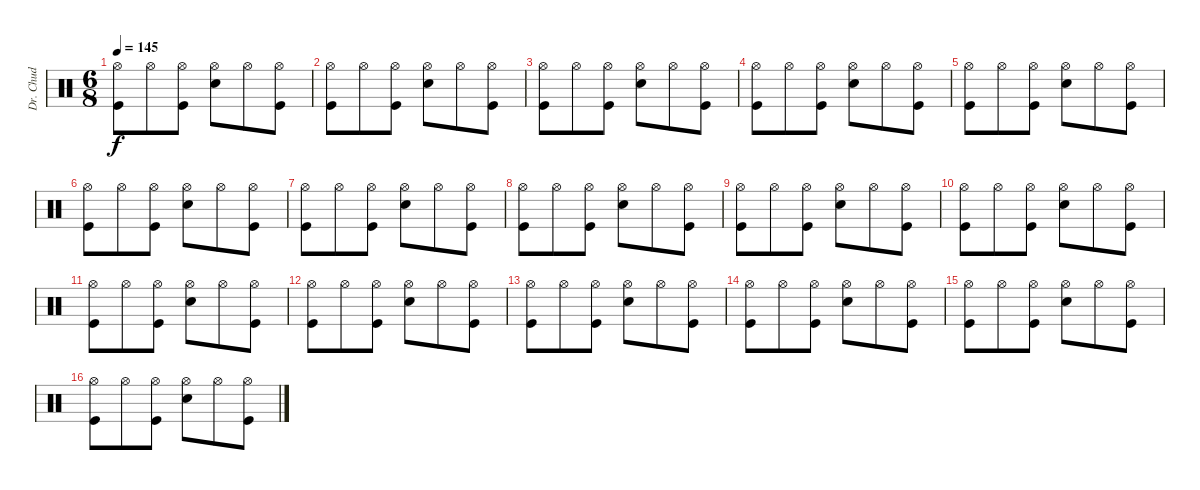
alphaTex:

\track ("Dr. Chud" "Dr. Chud") {instrument percussion}
\staff {score}
\articulation defaults
\ts (6 8)
\tempo 145
\clef neutral
\ks c
("Hi-Hat (open)" "Kick (hit)").8{dy f} "Hi-Hat (open)".8 ("Hi-Hat (open)" "Kick (hit)").8 ("Hi-Hat (open)" "Snare (hit) 2").8 "Hi-Hat (open)".8 ("Hi-Hat (open)" "Kick (hit)").8 |
("Hi-Hat (open)" "Kick (hit)").8 "Hi-Hat (open)".8 ("Hi-Hat (open)" "Kick (hit)").8 ("Hi-Hat (open)" "Snare (hit) 2").8 "Hi-Hat (open)".8 ("Hi-Hat (open)" "Kick (hit)").8 |
("Hi-Hat (open)" "Kick (hit)").8 "Hi-Hat (open)".8 ("Hi-Hat (open)" "Kick (hit)").8 ("Hi-Hat (open)" "Snare (hit) 2").8 "Hi-Hat (open)".8 ("Hi-Hat (open)" "Kick (hit)").8 |
("Hi-Hat (open)" "Kick (hit)").8 "Hi-Hat (open)".8 ("Hi-Hat (open)" "Kick (hit)").8 ("Hi-Hat (open)" "Snare (hit) 2").8 "Hi-Hat (open)".8 ("Hi-Hat (open)" "Kick (hit)").8 |
("Hi-Hat (open)" "Kick (hit)").8 "Hi-Hat (open)".8 ("Hi-Hat (open)" "Kick (hit)").8 ("Hi-Hat (open)" "Snare (hit) 2").8 "Hi-Hat (open)".8 ("Hi-Hat (open)" "Kick (hit)").8 |
("Hi-Hat (open)" "Kick (hit)").8 "Hi-Hat (open)".8 ("Hi-Hat (open)" "Kick (hit)").8 ("Hi-Hat (open)" "Snare (hit) 2").8 "Hi-Hat (open)".8 ("Hi-Hat (open)" "Kick (hit)").8 |
("Hi-Hat (open)" "Kick (hit)").8 "Hi-Hat (open)".8 ("Hi-Hat (open)" "Kick (hit)").8 ("Hi-Hat (open)" "Snare (hit) 2").8 "Hi-Hat (open)".8 ("Hi-Hat (open)" "Kick (hit)").8 |
("Hi-Hat (open)" "Kick (hit)").8 "Hi-Hat (open)".8 ("Hi-Hat (open)" "Kick (hit)").8 ("Hi-Hat (open)" "Snare (hit) 2").8 "Hi-Hat (open)".8 ("Hi-Hat (open)" "Kick (hit)").8 |
("Hi-Hat (open)" "Kick (hit)").8 "Hi-Hat (open)".8 ("Hi-Hat (open)" "Kick (hit)").8 ("Hi-Hat (open)" "Snare (hit) 2").8 "Hi-Hat (open)".8 ("Hi-Hat (open)" "Kick (hit)").8 |
("Hi-Hat (open)" "Kick (hit)").8 "Hi-Hat (open)".8 ("Hi-Hat (open)" "Kick (hit)").8 ("Hi-Hat (open)" "Snare (hit) 2").8 "Hi-Hat (open)".8 ("Hi-Hat (open)" "Kick (hit)").8 |
("Hi-Hat (open)" "Kick (hit)").8 "Hi-Hat (open)".8 ("Hi-Hat (open)" "Kick (hit)").8 ("Hi-Hat (open)" "Snare (hit) 2").8 "Hi-Hat (open)".8 ("Hi-Hat (open)" "Kick (hit)").8 |
("Hi-Hat (open)" "Kick (hit)").8 "Hi-Hat (open)".8 ("Hi-Hat (open)" "Kick (hit)").8 ("Hi-Hat (open)" "Snare (hit) 2").8 "Hi-Hat (open)".8 ("Hi-Hat (open)" "Kick (hit)").8 |
("Hi-Hat (open)" "Kick (hit)").8 "Hi-Hat (open)".8 ("Hi-Hat (open)" "Kick (hit)").8 ("Hi-Hat (open)" "Snare (hit) 2").8 "Hi-Hat (open)".8 ("Hi-Hat (open)" "Kick (hit)").8 |
("Hi-Hat (open)" "Kick (hit)").8 "Hi-Hat (open)".8 ("Hi-Hat (open)" "Kick (hit)").8 ("Hi-Hat (open)" "Snare (hit) 2").8 "Hi-Hat (open)".8 ("Hi-Hat (open)" "Kick (hit)").8 |
("Hi-Hat (open)" "Kick (hit)").8 "Hi-Hat (open)".8 ("Hi-Hat (open)" "Kick (hit)").8 ("Hi-Hat (open)" "Snare (hit) 2").8 "Hi-Hat (open)".8 ("Hi-Hat (open)" "Kick (hit)").8 |
("Hi-Hat (open)" "Kick (hit)").8 "Hi-Hat (open)".8 ("Hi-Hat (open)" "Kick (hit)").8 ("Hi-Hat (open)" "Snare (hit) 2").8 "Hi-Hat (open)".8 ("Hi-Hat (open)" "Kick (hit)").8
